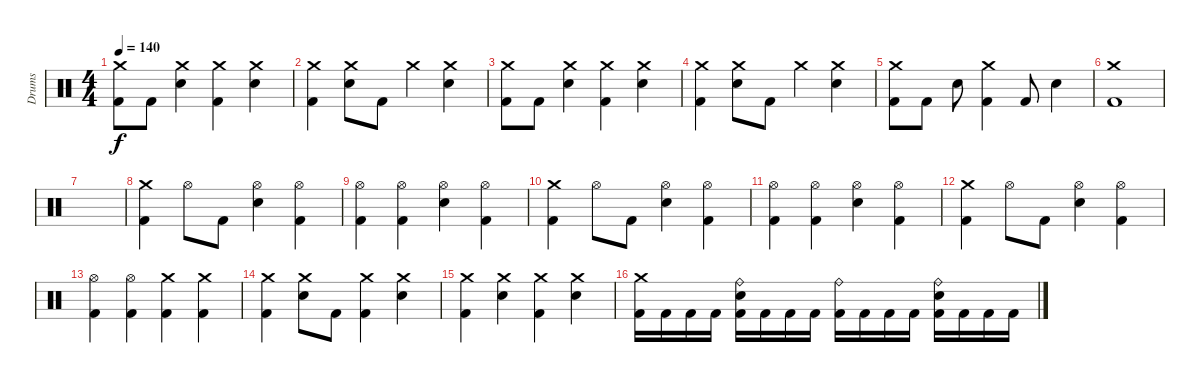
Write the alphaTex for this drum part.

\track ("Drums" "Drums") {instrument percussion}
\staff
\articulation defaults
\ts (4 4)
\tempo 140
\clef neutral
\ks c
("Crash medium (hit)" "Kick (hit) 2").8{dy f} "Kick (hit) 2".8 ("Crash medium (hit)" "Electric Snare (hit)").4 ("Crash medium (hit)" "Kick (hit) 2").4 ("Crash medium (hit)" "Electric Snare (hit)").4 |
("Crash medium (hit)" "Kick (hit) 2").4 ("Crash medium (hit)" "Electric Snare (hit)").8 "Kick (hit) 2".8 "Crash medium (hit)".4 ("Crash medium (hit)" "Electric Snare (hit)").4 |
("Crash medium (hit)" "Kick (hit) 2").8 "Kick (hit) 2".8 ("Crash medium (hit)" "Electric Snare (hit)").4 ("Crash medium (hit)" "Kick (hit) 2").4 ("Crash medium (hit)" "Electric Snare (hit)").4 |
("Crash medium (hit)" "Kick (hit) 2").4 ("Crash medium (hit)" "Electric Snare (hit)").8 "Kick (hit) 2".8 "Crash medium (hit)".4 ("Crash medium (hit)" "Electric Snare (hit)").4 |
("Crash medium (hit)" "Kick (hit) 2").8 "Kick (hit) 2".8 "Electric Snare (hit)".8 ("Crash medium (hit)" "Kick (hit) 2").4 "Kick (hit) 2".8 "Electric Snare (hit)".4 |
("Crash medium (hit)" "Kick (hit) 2").1 |
|
("Crash medium (hit)" "Kick (hit) 2").4 "Hi-Hat (open)".8 "Kick (hit) 2".8 ("Hi-Hat (open)" "Electric Snare (hit)").4 ("Hi-Hat (open)" "Kick (hit) 2").4 |
("Hi-Hat (open)" "Kick (hit) 2").4 ("Hi-Hat (open)" "Kick (hit) 2").4 ("Hi-Hat (open)" "Electric Snare (hit)").4 ("Hi-Hat (open)" "Kick (hit) 2").4 |
("Crash medium (hit)" "Kick (hit) 2").4 "Hi-Hat (open)".8 "Kick (hit) 2".8 ("Hi-Hat (open)" "Electric Snare (hit)").4 ("Hi-Hat (open)" "Kick (hit) 2").4 |
("Hi-Hat (open)" "Kick (hit) 2").4 ("Hi-Hat (open)" "Kick (hit) 2").4 ("Hi-Hat (open)" "Electric Snare (hit)").4 ("Hi-Hat (open)" "Kick (hit) 2").4 |
("Crash medium (hit)" "Kick (hit) 2").4 "Hi-Hat (open)".8 "Kick (hit) 2".8 ("Hi-Hat (open)" "Electric Snare (hit)").4 ("Hi-Hat (open)" "Kick (hit) 2").4 |
("Hi-Hat (open)" "Kick (hit) 2").4 ("Hi-Hat (open)" "Kick (hit) 2").4 ("Crash medium (hit)" "Kick (hit) 2").4 ("Crash medium (hit)" "Kick (hit) 2").4 |
("Crash medium (hit)" "Kick (hit) 2").4 ("Crash medium (hit)" "Electric Snare (hit)").8 "Kick (hit) 2".8 ("Crash medium (hit)" "Kick (hit) 2").4 ("Crash medium (hit)" "Electric Snare (hit)").4 |
("Crash medium (hit)" "Kick (hit) 2").4 ("Crash medium (hit)" "Electric Snare (hit)").4 ("Crash medium (hit)" "Kick (hit) 2").4 ("Crash medium (hit)" "Electric Snare (hit)").4 |
("Crash medium (hit)" "Kick (hit) 2").16 "Kick (hit) 2".16 "Kick (hit) 2".16 "Kick (hit) 2".16 ("Ride (bell)" "Electric Snare (hit)" "Kick (hit) 2").16 "Kick (hit) 2".16 "Kick (hit) 2".16 "Kick (hit) 2".16 ("Ride (bell)" "Kick (hit) 2").16 "Kick (hit) 2".16 "Kick (hit) 2".16 "Kick (hit) 2".16 ("Ride (bell)" "Electric Snare (hit)" "Kick (hit) 2").16 "Kick (hit) 2".16 "Kick (hit) 2".16 "Kick (hit) 2".16
